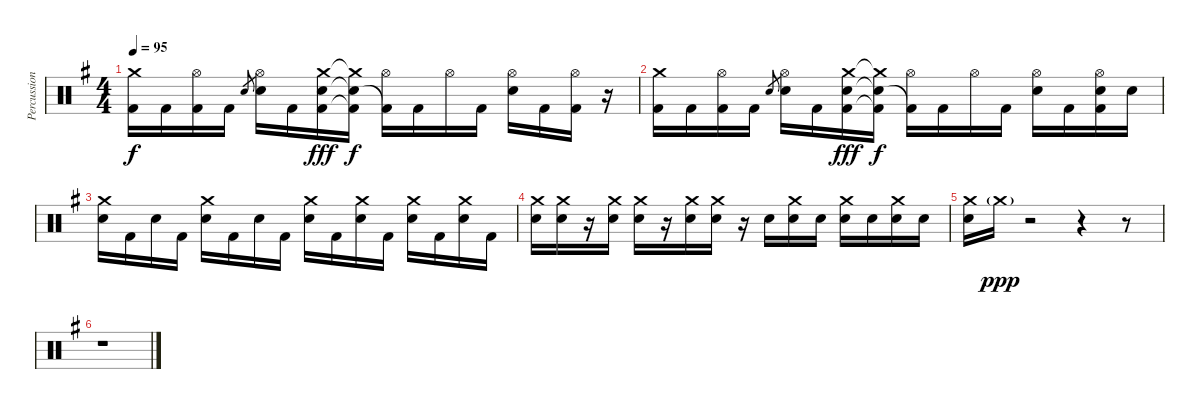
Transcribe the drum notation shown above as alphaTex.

\track ("Percussions" "Percussion") {instrument percussion}
\staff {score}
\articulation defaults
\ts (4 4)
\tempo 95
\clef neutral
\ks eminor
("Crash medium (hit)" "Kick (hit) 2").16{dy f} "Kick (hit) 2".16 ("Hi-Hat (open)" "Kick (hit) 2").16 "Kick (hit) 2".16 "Electric Snare (hit)".8{gr} ("Hi-Hat (open)" "Electric Snare (hit)").16 "Kick (hit) 2".16 ("Crash medium (hit)" "Electric Snare (hit)" "Kick (hit) 2").16{dy fff} ("Crash medium (hit)"{t} "Electric Snare (hit)"{t} "Kick (hit) 2"{t}).16{dy f} ("Hi-Hat (open)" "Kick (hit) 2"{t}).16 "Kick (hit) 2".16 "Hi-Hat (open)".16 "Kick (hit) 2".16 ("Hi-Hat (open)" "Electric Snare (hit)").16 "Kick (hit) 2".16 ("Hi-Hat (open)" "Kick (hit) 2").16 r.16 |
("Crash medium (hit)" "Kick (hit) 2").16 "Kick (hit) 2".16 ("Hi-Hat (open)" "Kick (hit) 2").16 "Kick (hit) 2".16 "Electric Snare (hit)".8{gr} ("Hi-Hat (open)" "Electric Snare (hit)").16 "Kick (hit) 2".16 ("Crash medium (hit)" "Electric Snare (hit)" "Kick (hit) 2").16{dy fff} ("Crash medium (hit)"{t} "Electric Snare (hit)"{t} "Kick (hit) 2"{t}).16{dy f} ("Hi-Hat (open)" "Kick (hit) 2"{t}).16 "Kick (hit) 2".16 "Hi-Hat (open)".16 "Kick (hit) 2".16 ("Hi-Hat (open)" "Electric Snare (hit)").16 "Kick (hit) 2".16 ("Hi-Hat (open)" "Electric Snare (hit)" "Kick (hit) 2").16 "Electric Snare (hit)".16 |
("Crash medium (hit)" "Electric Snare (hit)").16 "Kick (hit) 2".16 "Electric Snare (hit)".16 "Kick (hit) 2".16 ("Crash medium (hit)" "Electric Snare (hit)").16 "Kick (hit) 2".16 "Electric Snare (hit)".16 "Kick (hit) 2".16 ("Crash medium (hit)" "Electric Snare (hit)").16 "Kick (hit) 2".16 ("Crash medium (hit)" "Electric Snare (hit)").16 "Kick (hit) 2".16 ("Crash medium (hit)" "Electric Snare (hit)").16 "Kick (hit) 2".16 ("Crash medium (hit)" "Electric Snare (hit)").16 "Kick (hit) 2".16 |
("Crash medium (hit)" "Electric Snare (hit)").16 ("Crash medium (hit)" "Electric Snare (hit)").16 r.16 ("Crash medium (hit)" "Electric Snare (hit)").16 ("Crash medium (hit)" "Electric Snare (hit)").16 r.16 ("Crash medium (hit)" "Electric Snare (hit)").16 ("Crash medium (hit)" "Electric Snare (hit)").16 r.16 "Electric Snare (hit)".16 ("Crash medium (hit)" "Electric Snare (hit)").16 "Electric Snare (hit)".16 ("Crash medium (hit)" "Electric Snare (hit)").16 "Electric Snare (hit)".16 ("Crash medium (hit)" "Electric Snare (hit)").16 "Electric Snare (hit)".16 |
("Crash medium (hit)" "Electric Snare (hit)").16 "Crash medium (hit)"{g}.16{dy ppp} r.2 r.4 r.8 |
r.1
